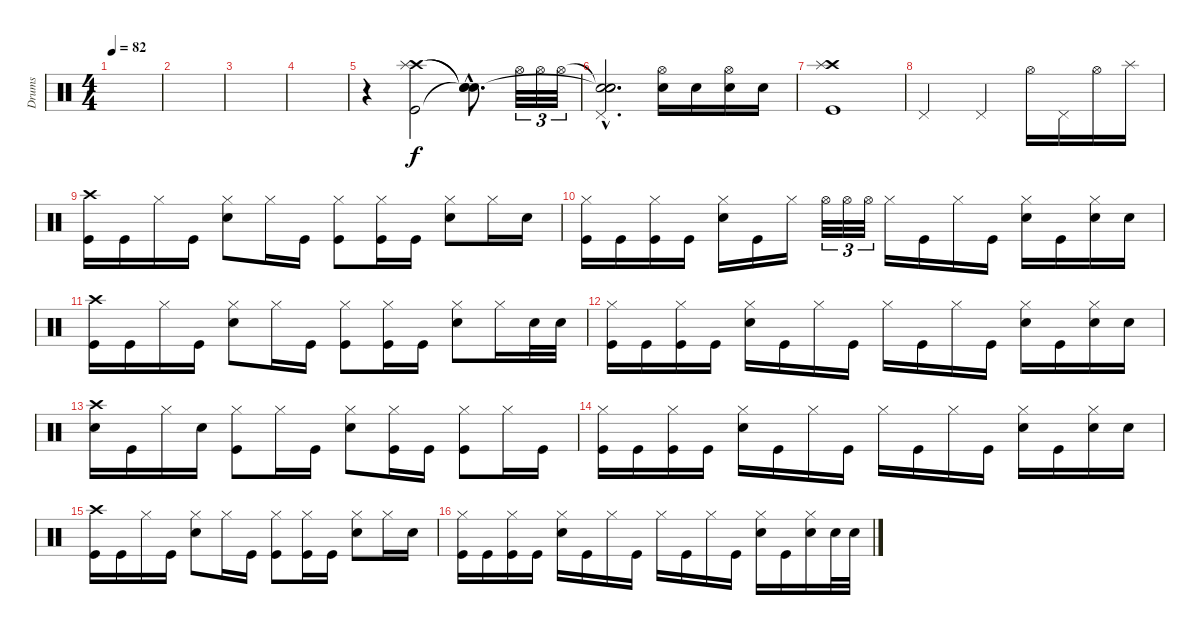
\track ("Drums" "Drums") {instrument percussion}
\staff {score}
\articulation defaults
\ts (4 4)
\tempo 82
\clef neutral
\ks c
|
|
|
|
r.4 ("Crash high (hit)" "Splash (hit)" "Kick (hit)").2 ("Snare (hit)"{hac t} "Snare (hit)"{hac t} "Snare (hit)"{hac t}).8{d} "Hi-Hat (open)".32{tu (3 2)} "Hi-Hat (open)".32{tu (3 2)} "Hi-Hat (open)".32{tu (3 2)} |
("Snare (hit)"{hac t} "Snare (hit)"{hac t} "Pedal Hi-Hat (hit)"{hac} "Snare (hit)"{hac}).2{d} ("Hi-Hat (open)" "Electric Snare (hit)").16 "Electric Snare (hit)".16 ("Hi-Hat (open)" "Electric Snare (hit)").16 "Electric Snare (hit)".16 |
("Crash high (hit)" "Splash (hit)" "Kick (hit)").1 |
"Pedal Hi-Hat (hit)".2 "Pedal Hi-Hat (hit)".4 "Hi-Hat (open)".16 "Pedal Hi-Hat (hit)".16 "Hi-Hat (open)".16 "Splash (hit)".16 |
("Crash high (hit)" "Kick (hit)").16 "Kick (hit)".16 "Hi-Hat (closed)".16 "Kick (hit)".16 ("Hi-Hat (closed)" "Electric Snare (hit)").8 "Hi-Hat (closed)".16 "Kick (hit)".16 ("Hi-Hat (closed)" "Kick (hit)").8 ("Hi-Hat (closed)" "Kick (hit)").16 "Kick (hit)".16 ("Hi-Hat (closed)" "Electric Snare (hit)").8 "Hi-Hat (closed)".16 "Electric Snare (hit)".16 |
("Hi-Hat (closed)" "Kick (hit)").16 "Kick (hit)".16 ("Hi-Hat (closed)" "Kick (hit)").16 "Kick (hit)".16 ("Hi-Hat (closed)" "Electric Snare (hit)").16 "Kick (hit)".16 "Hi-Hat (closed)".16 "Hi-Hat (open)".32{tu (3 2)} "Hi-Hat (open)".32{tu (3 2)} "Hi-Hat (open)".32{tu (3 2)} "Hi-Hat (closed)".16 "Kick (hit)".16 "Hi-Hat (closed)".16 "Kick (hit)".16 ("Hi-Hat (closed)" "Electric Snare (hit)").16 "Kick (hit)".16 ("Hi-Hat (closed)" "Electric Snare (hit)").16 "Electric Snare (hit)".16 |
("Crash high (hit)" "Kick (hit)").16 "Kick (hit)".16 "Hi-Hat (closed)".16 "Kick (hit)".16 ("Hi-Hat (closed)" "Electric Snare (hit)").8 "Hi-Hat (closed)".16 "Kick (hit)".16 ("Hi-Hat (closed)" "Kick (hit)").8 ("Hi-Hat (closed)" "Kick (hit)").16 "Kick (hit)".16 ("Hi-Hat (closed)" "Electric Snare (hit)").8 "Hi-Hat (closed)".16 "Electric Snare (hit)".32 "Electric Snare (hit)".32 |
("Hi-Hat (closed)" "Kick (hit)").16 "Kick (hit)".16 ("Hi-Hat (closed)" "Kick (hit)").16 "Kick (hit)".16 ("Hi-Hat (closed)" "Electric Snare (hit)").16 "Kick (hit)".16 "Hi-Hat (closed)".16 "Kick (hit)".16 "Hi-Hat (closed)".16 "Kick (hit)".16 "Hi-Hat (closed)".16 "Kick (hit)".16 ("Hi-Hat (closed)" "Electric Snare (hit)").16 "Kick (hit)".16 ("Hi-Hat (closed)" "Electric Snare (hit)").16 "Electric Snare (hit)".16 |
("Crash high (hit)" "Electric Snare (hit)").16 "Kick (hit)".16 "Hi-Hat (closed)".16 "Electric Snare (hit)".16 ("Hi-Hat (closed)" "Kick (hit)").8 "Hi-Hat (closed)".16 "Kick (hit)".16 ("Hi-Hat (closed)" "Electric Snare (hit)").8 ("Hi-Hat (closed)" "Kick (hit)").16 "Kick (hit)".16 ("Hi-Hat (closed)" "Kick (hit)").8 "Hi-Hat (closed)".16 "Kick (hit)".16 |
("Hi-Hat (closed)" "Kick (hit)").16 "Kick (hit)".16 ("Hi-Hat (closed)" "Kick (hit)").16 "Kick (hit)".16 ("Hi-Hat (closed)" "Electric Snare (hit)").16 "Kick (hit)".16 "Hi-Hat (closed)".16 "Kick (hit)".16 "Hi-Hat (closed)".16 "Kick (hit)".16 "Hi-Hat (closed)".16 "Kick (hit)".16 ("Hi-Hat (closed)" "Electric Snare (hit)").16 "Kick (hit)".16 ("Hi-Hat (closed)" "Electric Snare (hit)").16 "Electric Snare (hit)".16 |
("Crash high (hit)" "Kick (hit)").16 "Kick (hit)".16 "Hi-Hat (closed)".16 "Kick (hit)".16 ("Hi-Hat (closed)" "Electric Snare (hit)").8 "Hi-Hat (closed)".16 "Kick (hit)".16 ("Hi-Hat (closed)" "Kick (hit)").8 ("Hi-Hat (closed)" "Kick (hit)").16 "Kick (hit)".16 ("Hi-Hat (closed)" "Electric Snare (hit)").8 "Hi-Hat (closed)".16 "Electric Snare (hit)".16 |
("Hi-Hat (closed)" "Kick (hit)").16 "Kick (hit)".16 ("Hi-Hat (closed)" "Kick (hit)").16 "Kick (hit)".16 ("Hi-Hat (closed)" "Electric Snare (hit)").16 "Kick (hit)".16 "Hi-Hat (closed)".16 "Kick (hit)".16 "Hi-Hat (closed)".16 "Kick (hit)".16 "Hi-Hat (closed)".16 "Kick (hit)".16 ("Hi-Hat (closed)" "Electric Snare (hit)").16 "Kick (hit)".16 ("Hi-Hat (closed)" "Electric Snare (hit)").16 "Electric Snare (hit)".32 "Electric Snare (hit)".32
